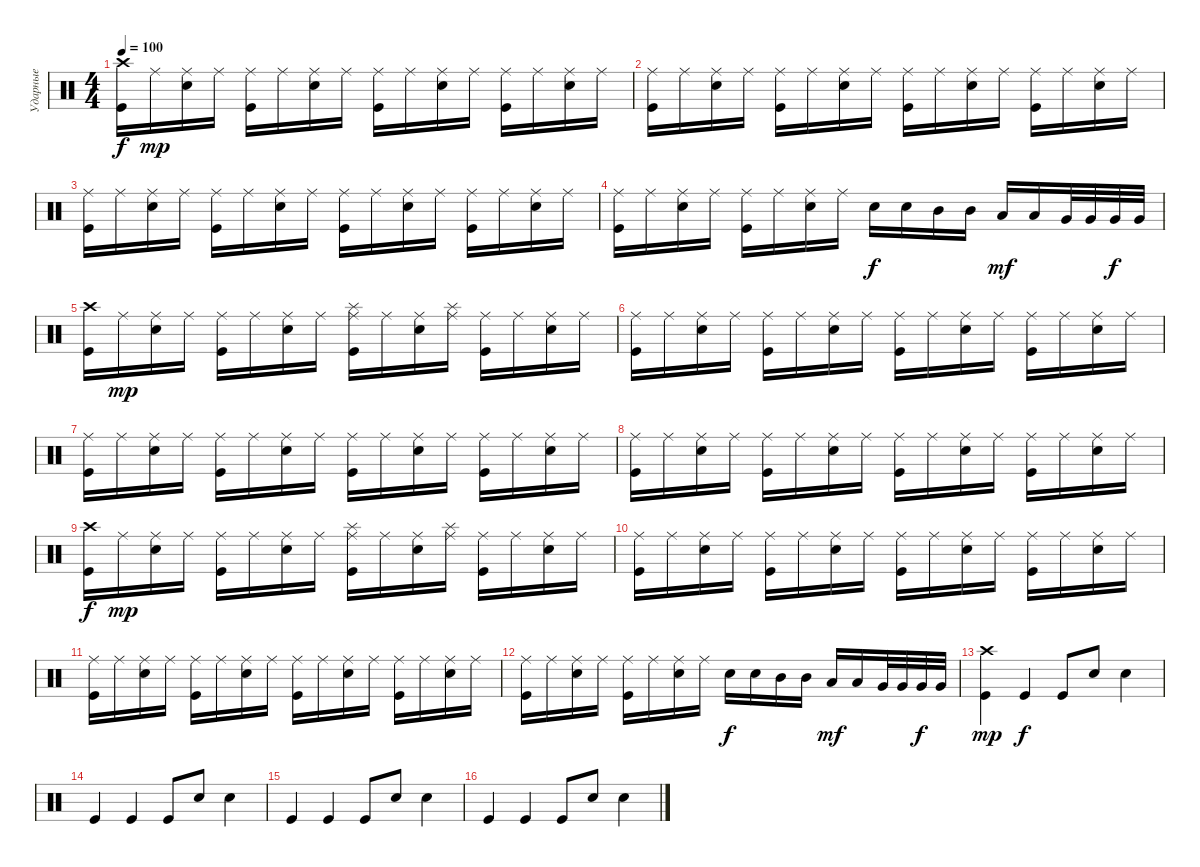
\track ("Ударные" "Ударные") {instrument percussion}
\staff {score}
\articulation defaults
\ts (4 4)
\tempo 100
\clef neutral
\ks c
("Crash high (hit)" "Kick (hit)").16{dy f} "Ride (middle)".16{dy mp} ("Ride (middle)" "Snare (hit) 2").16 "Ride (middle)".16 ("Ride (middle)" "Kick (hit)").16 "Ride (middle)".16 ("Ride (middle)" "Snare (hit) 2").16 "Ride (middle)".16 ("Ride (middle)" "Kick (hit)").16 "Ride (middle)".16 ("Ride (middle)" "Snare (hit) 2").16 "Ride (middle)".16 ("Ride (middle)" "Kick (hit)").16 "Ride (middle)".16 ("Ride (middle)" "Snare (hit) 2").16 "Ride (middle)".16 |
("Ride (middle)" "Kick (hit)").16 "Ride (middle)".16 ("Ride (middle)" "Snare (hit) 2").16 "Ride (middle)".16 ("Ride (middle)" "Kick (hit)").16 "Ride (middle)".16 ("Ride (middle)" "Snare (hit) 2").16 "Ride (middle)".16 ("Ride (middle)" "Kick (hit)").16 "Ride (middle)".16 ("Ride (middle)" "Snare (hit) 2").16 "Ride (middle)".16 ("Ride (middle)" "Kick (hit)").16 "Ride (middle)".16 ("Ride (middle)" "Snare (hit) 2").16 "Ride (middle)".16 |
("Ride (middle)" "Kick (hit)").16 "Ride (middle)".16 ("Ride (middle)" "Snare (hit) 2").16 "Ride (middle)".16 ("Ride (middle)" "Kick (hit)").16 "Ride (middle)".16 ("Ride (middle)" "Snare (hit) 2").16 "Ride (middle)".16 ("Ride (middle)" "Kick (hit)").16 "Ride (middle)".16 ("Ride (middle)" "Snare (hit) 2").16 "Ride (middle)".16 ("Ride (middle)" "Kick (hit)").16 "Ride (middle)".16 ("Ride (middle)" "Snare (hit) 2").16 "Ride (middle)".16 |
("Ride (middle)" "Kick (hit)").16 "Ride (middle)".16 ("Ride (middle)" "Snare (hit) 2").16 "Ride (middle)".16 ("Ride (middle)" "Kick (hit)").16 "Ride (middle)".16 ("Ride (middle)" "Snare (hit) 2").16 "Ride (middle)".16 "Snare (hit) 2".16{dy f} "Snare (hit) 2".16 "Mid Tom (hit)".16 "Mid Tom (hit)".16 "Low Tom (hit)".16{dy mf} "Low Tom (hit)".16 "Very Low Tom (hit)".32 "Very Low Tom (hit)".32 "Very Low Tom (hit)".32{dy f} "Very Low Tom (hit)".32 |
("Crash high (hit)" "Kick (hit)").16 "Ride (middle)".16{dy mp} ("Ride (middle)" "Snare (hit) 2").16 "Ride (middle)".16 ("Ride (middle)" "Kick (hit)").16 "Ride (middle)".16 ("Ride (middle)" "Snare (hit) 2").16 "Ride (middle)".16 ("Splash (hit)" "Ride (middle)" "Kick (hit)").16 "Ride (middle)".16 ("Ride (middle)" "Snare (hit) 2").16 ("Splash (hit)" "Ride (middle)").16 ("Ride (middle)" "Kick (hit)").16 "Ride (middle)".16 ("Ride (middle)" "Snare (hit) 2").16 "Ride (middle)".16 |
("Ride (middle)" "Kick (hit)").16 "Ride (middle)".16 ("Ride (middle)" "Snare (hit) 2").16 "Ride (middle)".16 ("Ride (middle)" "Kick (hit)").16 "Ride (middle)".16 ("Ride (middle)" "Snare (hit) 2").16 "Ride (middle)".16 ("Ride (middle)" "Kick (hit)").16 "Ride (middle)".16 ("Ride (middle)" "Snare (hit) 2").16 "Ride (middle)".16 ("Ride (middle)" "Kick (hit)").16 "Ride (middle)".16 ("Ride (middle)" "Snare (hit) 2").16 "Ride (middle)".16 |
("Ride (middle)" "Kick (hit)").16 "Ride (middle)".16 ("Ride (middle)" "Snare (hit) 2").16 "Ride (middle)".16 ("Ride (middle)" "Kick (hit)").16 "Ride (middle)".16 ("Ride (middle)" "Snare (hit) 2").16 "Ride (middle)".16 ("Ride (middle)" "Kick (hit)").16 "Ride (middle)".16 ("Ride (middle)" "Snare (hit) 2").16 "Ride (middle)".16 ("Ride (middle)" "Kick (hit)").16 "Ride (middle)".16 ("Ride (middle)" "Snare (hit) 2").16 "Ride (middle)".16 |
("Ride (middle)" "Kick (hit)").16 "Ride (middle)".16 ("Ride (middle)" "Snare (hit) 2").16 "Ride (middle)".16 ("Ride (middle)" "Kick (hit)").16 "Ride (middle)".16 ("Ride (middle)" "Snare (hit) 2").16 "Ride (middle)".16 ("Ride (middle)" "Kick (hit)").16 "Ride (middle)".16 ("Ride (middle)" "Snare (hit) 2").16 "Ride (middle)".16 ("Ride (middle)" "Kick (hit)").16 "Ride (middle)".16 ("Ride (middle)" "Snare (hit) 2").16 "Ride (middle)".16 |
("Crash high (hit)" "Kick (hit)").16{dy f} "Ride (middle)".16{dy mp} ("Ride (middle)" "Snare (hit) 2").16 "Ride (middle)".16 ("Ride (middle)" "Kick (hit)").16 "Ride (middle)".16 ("Ride (middle)" "Snare (hit) 2").16 "Ride (middle)".16 ("Splash (hit)" "Ride (middle)" "Kick (hit)").16 "Ride (middle)".16 ("Ride (middle)" "Snare (hit) 2").16 ("Splash (hit)" "Ride (middle)").16 ("Ride (middle)" "Kick (hit)").16 "Ride (middle)".16 ("Ride (middle)" "Snare (hit) 2").16 "Ride (middle)".16 |
("Ride (middle)" "Kick (hit)").16 "Ride (middle)".16 ("Ride (middle)" "Snare (hit) 2").16 "Ride (middle)".16 ("Ride (middle)" "Kick (hit)").16 "Ride (middle)".16 ("Ride (middle)" "Snare (hit) 2").16 "Ride (middle)".16 ("Ride (middle)" "Kick (hit)").16 "Ride (middle)".16 ("Ride (middle)" "Snare (hit) 2").16 "Ride (middle)".16 ("Ride (middle)" "Kick (hit)").16 "Ride (middle)".16 ("Ride (middle)" "Snare (hit) 2").16 "Ride (middle)".16 |
("Ride (middle)" "Kick (hit)").16 "Ride (middle)".16 ("Ride (middle)" "Snare (hit) 2").16 "Ride (middle)".16 ("Ride (middle)" "Kick (hit)").16 "Ride (middle)".16 ("Ride (middle)" "Snare (hit) 2").16 "Ride (middle)".16 ("Ride (middle)" "Kick (hit)").16 "Ride (middle)".16 ("Ride (middle)" "Snare (hit) 2").16 "Ride (middle)".16 ("Ride (middle)" "Kick (hit)").16 "Ride (middle)".16 ("Ride (middle)" "Snare (hit) 2").16 "Ride (middle)".16 |
("Ride (middle)" "Kick (hit)").16 "Ride (middle)".16 ("Ride (middle)" "Snare (hit) 2").16 "Ride (middle)".16 ("Ride (middle)" "Kick (hit)").16 "Ride (middle)".16 ("Ride (middle)" "Snare (hit) 2").16 "Ride (middle)".16 "Snare (hit) 2".16{dy f} "Snare (hit) 2".16 "Mid Tom (hit)".16 "Mid Tom (hit)".16 "Low Tom (hit)".16{dy mf} "Low Tom (hit)".16 "Very Low Tom (hit)".32 "Very Low Tom (hit)".32 "Very Low Tom (hit)".32{dy f} "Very Low Tom (hit)".32 |
("Crash high (hit)" "Kick (hit)").4{dy mp} "Kick (hit)".4{dy f} "Kick (hit)".8 "Snare (hit) 2".8 "Snare (hit) 2".4 |
"Kick (hit)".4 "Kick (hit)".4 "Kick (hit)".8 "Snare (hit) 2".8 "Snare (hit) 2".4 |
"Kick (hit)".4 "Kick (hit)".4 "Kick (hit)".8 "Snare (hit) 2".8 "Snare (hit) 2".4 |
"Kick (hit)".4 "Kick (hit)".4 "Kick (hit)".8 "Snare (hit) 2".8 "Snare (hit) 2".4
